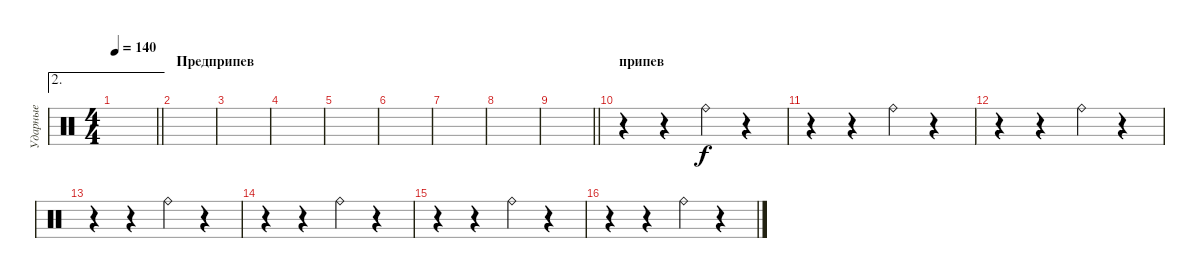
\track ("Ударные" "Ударные") {instrument percussion}
\staff {score}
\articulation defaults
\ae 2
\ts (4 4)
\tempo 140
\clef neutral
\barLineRight lightlight
\ks c
|
\section ("" "Предприпев")
|
|
|
|
|
|
|
\barLineRight lightlight
|
\section ("" "припев")
r.4 r.4 "Ride (bell)".4 r.4 |
r.4 r.4 "Ride (bell)".4 r.4 |
r.4 r.4 "Ride (bell)".4 r.4 |
r.4 r.4 "Ride (bell)".4 r.4 |
r.4 r.4 "Ride (bell)".4 r.4 |
r.4 r.4 "Ride (bell)".4 r.4 |
r.4 r.4 "Ride (bell)".4 r.4
